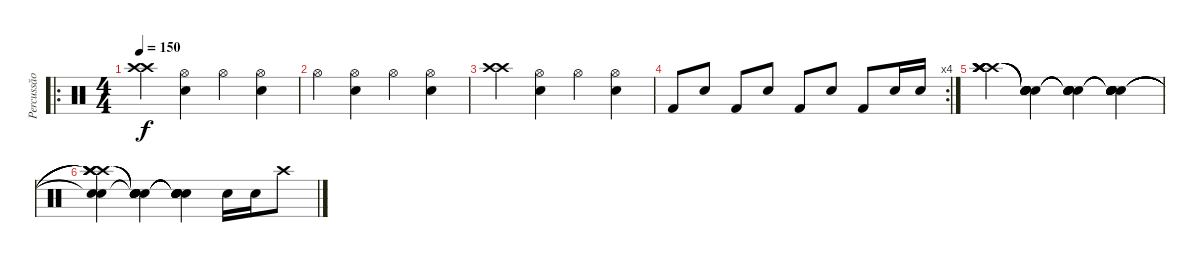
\track ("Percussăo" "Percussăo") {instrument percussion}
\staff {score}
\articulation defaults
\ro
\ts (4 4)
\tempo 150
\clef neutral
\ks c
("Crash high (hit)" "Crash high (hit)").4{dy f} ("Hi-Hat (open)" "Snare (hit) 2").4 "Hi-Hat (open)".4 ("Hi-Hat (open)" "Snare (hit) 2").4 |
"Hi-Hat (open)".4 ("Hi-Hat (open)" "Snare (hit) 2").4 "Hi-Hat (open)".4 ("Hi-Hat (open)" "Snare (hit) 2").4 |
("Crash high (hit)" "Crash high (hit)").4 ("Hi-Hat (open)" "Snare (hit) 2").4 "Hi-Hat (open)".4 ("Hi-Hat (open)" "Snare (hit) 2").4 |
\rc 4 "Kick (hit) 2".8 "Snare (hit) 2".8 "Kick (hit) 2".8 "Snare (hit) 2".8 "Kick (hit) 2".8 "Snare (hit) 2".8 "Kick (hit) 2".8 "Snare (hit) 2".16 "Snare (hit) 2".16
|
("Crash high (hit)" "Crash high (hit)" "Crash high (hit)" "Crash high (hit)" "Crash high (hit)" "Crash high (hit)").4 ("Snare (hit)"{t} "Snare (hit)"{t} "Snare (hit)"{t} "Snare (hit)"{t} "Snare (hit)"{t} "Snare (hit)"{t}).4 ("Snare (hit)"{t} "Snare (hit)"{t} "Snare (hit)"{t} "Snare (hit)"{t} "Snare (hit)"{t} "Snare (hit)"{t}).4 ("Snare (hit)"{t} "Snare (hit)"{t} "Snare (hit)"{t} "Snare (hit)"{t} "Snare (hit)"{t} "Snare (hit)"{t}).4 |
("Crash high (hit)"{t} "Crash high (hit)"{t} "Crash high (hit)"{t} "Crash high (hit)"{t} "Snare (hit)"{t} "Snare (hit)"{t}).4 ("Snare (hit)"{t} "Snare (hit)"{t} "Snare (hit)"{t} "Snare (hit)"{t} "Snare (hit)"{t} "Snare (hit)"{t}).4 ("Snare (hit)"{t} "Snare (hit)"{t} "Snare (hit)"{t} "Snare (hit)"{t} "Snare (hit)"{t} "Snare (hit)"{t}).4 "Snare (hit) 2".16 "Snare (hit) 2".16 "Crash high (hit)".8
